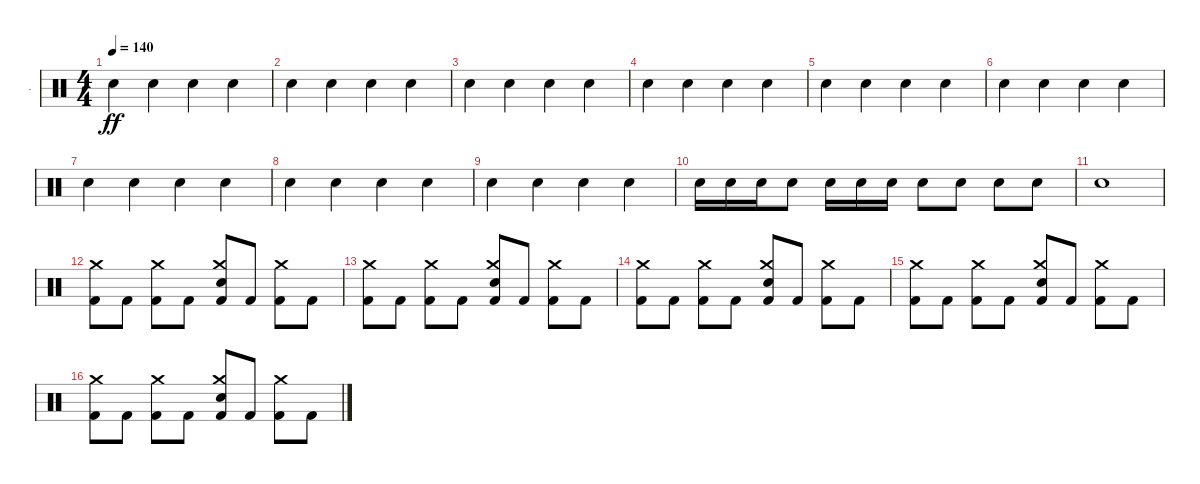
\track ("." ".") {instrument percussion}
\staff {score}
\articulation defaults
\ts (4 4)
\tempo 140
\clef neutral
\ks c "Electric Snare (hit)".4{dy ff} "Electric Snare (hit)".4 "Electric Snare (hit)".4 "Electric Snare (hit)".4
|
"Electric Snare (hit)".4 "Electric Snare (hit)".4 "Electric Snare (hit)".4 "Electric Snare (hit)".4 |
"Electric Snare (hit)".4 "Electric Snare (hit)".4 "Electric Snare (hit)".4 "Electric Snare (hit)".4 |
"Electric Snare (hit)".4 "Electric Snare (hit)".4 "Electric Snare (hit)".4 "Electric Snare (hit)".4 |
"Electric Snare (hit)".4 "Electric Snare (hit)".4 "Electric Snare (hit)".4 "Electric Snare (hit)".4 |
"Electric Snare (hit)".4 "Electric Snare (hit)".4 "Electric Snare (hit)".4 "Electric Snare (hit)".4 |
"Electric Snare (hit)".4 "Electric Snare (hit)".4 "Electric Snare (hit)".4 "Electric Snare (hit)".4 |
"Electric Snare (hit)".4 "Electric Snare (hit)".4 "Electric Snare (hit)".4 "Electric Snare (hit)".4 |
"Electric Snare (hit)".4 "Electric Snare (hit)".4 "Electric Snare (hit)".4 "Electric Snare (hit)".4 |
"Electric Snare (hit)".16 "Electric Snare (hit)".16 "Electric Snare (hit)".16 "Electric Snare (hit)".8 "Electric Snare (hit)".16 "Electric Snare (hit)".16 "Electric Snare (hit)".16 "Electric Snare (hit)".8 "Electric Snare (hit)".8 "Electric Snare (hit)".8 "Electric Snare (hit)".8 |
"Electric Snare (hit)".1 |
("Crash medium (hit)" "Kick (hit) 2").8 "Kick (hit) 2".8 ("Crash medium (hit)" "Kick (hit) 2").8 "Kick (hit) 2".8 ("Crash medium (hit)" "Electric Snare (hit)" "Kick (hit) 2").8 "Kick (hit) 2".8 ("Crash medium (hit)" "Kick (hit) 2").8 "Kick (hit) 2".8 |
("Crash medium (hit)" "Kick (hit) 2").8 "Kick (hit) 2".8 ("Crash medium (hit)" "Kick (hit) 2").8 "Kick (hit) 2".8 ("Crash medium (hit)" "Electric Snare (hit)" "Kick (hit) 2").8 "Kick (hit) 2".8 ("Crash medium (hit)" "Kick (hit) 2").8 "Kick (hit) 2".8 |
("Crash medium (hit)" "Kick (hit) 2").8 "Kick (hit) 2".8 ("Crash medium (hit)" "Kick (hit) 2").8 "Kick (hit) 2".8 ("Crash medium (hit)" "Electric Snare (hit)" "Kick (hit) 2").8 "Kick (hit) 2".8 ("Crash medium (hit)" "Kick (hit) 2").8 "Kick (hit) 2".8 |
("Crash medium (hit)" "Kick (hit) 2").8 "Kick (hit) 2".8 ("Crash medium (hit)" "Kick (hit) 2").8 "Kick (hit) 2".8 ("Crash medium (hit)" "Electric Snare (hit)" "Kick (hit) 2").8 "Kick (hit) 2".8 ("Crash medium (hit)" "Kick (hit) 2").8 "Kick (hit) 2".8 |
("Crash medium (hit)" "Kick (hit) 2").8 "Kick (hit) 2".8 ("Crash medium (hit)" "Kick (hit) 2").8 "Kick (hit) 2".8 ("Crash medium (hit)" "Electric Snare (hit)" "Kick (hit) 2").8 "Kick (hit) 2".8 ("Crash medium (hit)" "Kick (hit) 2").8 "Kick (hit) 2".8
